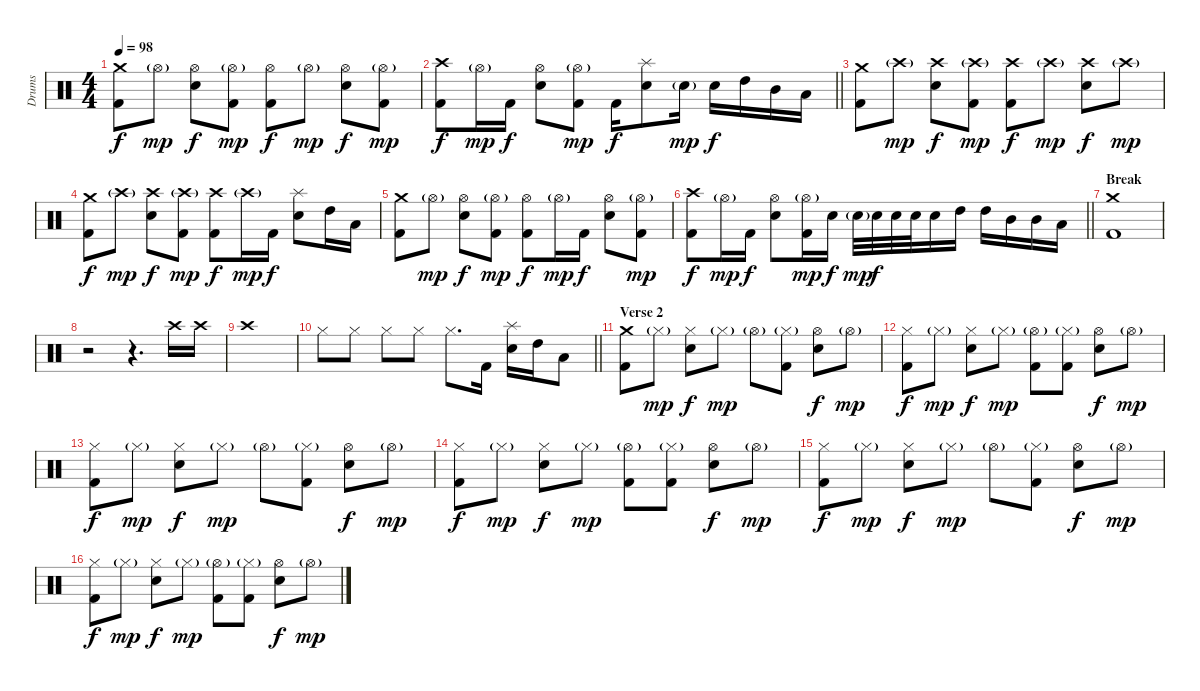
\track ("Drums " "Drums ") {instrument percussion bank 32}
\staff {score}
\articulation defaults
\ts (4 4)
\tempo 98
\clef neutral
\ks c
("Crash medium (hit)" "Kick (hit) 2").8{dy f} "Hi-Hat (open)"{g}.8{dy mp} ("Hi-Hat (open)" "Electric Snare (hit)").8{dy f} ("Hi-Hat (open)"{g} "Kick (hit) 2").8{dy mp} ("Hi-Hat (open)" "Kick (hit) 2").8{dy f} "Hi-Hat (open)"{g}.8{dy mp} ("Hi-Hat (open)" "Electric Snare (hit)").8{dy f} ("Hi-Hat (open)"{g} "Kick (hit) 2").8{dy mp} |
\barLineRight lightlight
("Crash high (hit)" "Kick (hit) 2").8{dy f} "Hi-Hat (open)"{g}.16{dy mp} "Kick (hit) 2".16{dy f} ("Hi-Hat (open)" "Electric Snare (hit)").8 ("Hi-Hat (open)"{g} "Kick (hit) 2").8{dy mp} "Kick (hit) 2".16{dy f} ("Splash (hit)" "Electric Snare (hit)").8 "Electric Snare (hit)"{g}.16{dy mp} "Electric Snare (hit)".16{dy f} "High Tom (hit)".16 "Mid Tom (hit)".16 "Low Tom (hit)".16 |
("Crash medium (hit)" "Kick (hit) 2").8 "Crash high (hit)"{g}.8{dy mp} ("Crash high (hit)" "Electric Snare (hit)").8{dy f} ("Crash high (hit)"{g} "Kick (hit) 2").8{dy mp} ("Crash high (hit)" "Kick (hit) 2").8{dy f} "Crash high (hit)"{g}.8{dy mp} ("Crash high (hit)" "Electric Snare (hit)").8{dy f} "Crash high (hit)"{g}.8{dy mp} |
("Crash medium (hit)" "Kick (hit) 2").8{dy f} "Crash high (hit)"{g}.8{dy mp} ("Crash high (hit)" "Electric Snare (hit)").8{dy f} ("Crash high (hit)"{g} "Kick (hit) 2").8{dy mp} ("Crash high (hit)" "Kick (hit) 2").8{dy f} "Crash high (hit)"{g}.16{dy mp} "Kick (hit) 2".16{dy f} ("Splash (hit)" "Electric Snare (hit)").8 "High Tom (hit)".16 "Low Tom (hit)".16 |
("Crash medium (hit)" "Kick (hit) 2").8 "Hi-Hat (open)"{g}.8{dy mp} ("Hi-Hat (open)" "Electric Snare (hit)").8{dy f} ("Hi-Hat (open)"{g} "Kick (hit) 2").8{dy mp} ("Hi-Hat (open)" "Kick (hit) 2").8{dy f} "Hi-Hat (open)"{g}.16{dy mp} "Kick (hit) 2".16{dy f} ("Hi-Hat (open)" "Electric Snare (hit)").8 ("Hi-Hat (open)"{g} "Kick (hit) 2").8{dy mp} |
\barLineRight lightlight
("Crash high (hit)" "Kick (hit) 2").8{dy f} "Hi-Hat (open)"{g}.16{dy mp} "Kick (hit) 2".16{dy f} ("Hi-Hat (open)" "Electric Snare (hit)").8 ("Hi-Hat (open)"{g} "Kick (hit) 2").16{dy mp} "Electric Snare (hit)".16{dy f} "Electric Snare (hit)"{g}.32{dy mp} "Electric Snare (hit)".32{dy f} "Electric Snare (hit)".32 "Electric Snare (hit)".32 "Electric Snare (hit)".16 "High Tom (hit)".16 "High Tom (hit)".16 "Mid Tom (hit)".16 "Mid Tom (hit)".16 "Low Tom (hit)".16 |
\section ("" "Break")
("Crash medium (hit)" "Kick (hit) 2").1 |
r.2{volume 0} r.4{d volume 13} "Crash high (hit)".16 "Crash high (hit)".16 |
"Crash high (hit)".1 |
\barLineRight lightlight "Hi-Hat (closed)".8 "Hi-Hat (closed)".8 "Hi-Hat (closed)".8 "Hi-Hat (closed)".8 "Hi-Hat (closed)".8{d} "Kick (hit) 2".16
("Splash (hit)" "Electric Snare (hit)").16 "High Tom (hit)".16 "Low Tom (hit)".8 |
\section ("" "Verse 2")
("Crash medium (hit)" "Kick (hit) 2").8 "Hi-Hat (closed)"{g}.8{dy mp} ("Hi-Hat (closed)" "Electric Snare (hit)").8{dy f} "Hi-Hat (closed)"{g}.8{dy mp} "Hi-Hat (open)"{g}.8 ("Hi-Hat (closed)"{g} "Kick (hit) 2").8 ("Hi-Hat (open)" "Electric Snare (hit)").8{dy f} "Hi-Hat (open)"{g}.8{dy mp} |
("Hi-Hat (closed)" "Kick (hit) 2").8{dy f} "Hi-Hat (closed)"{g}.8{dy mp} ("Hi-Hat (closed)" "Electric Snare (hit)").8{dy f} "Hi-Hat (closed)"{g}.8{dy mp} ("Hi-Hat (open)"{g} "Kick (hit) 2").8 ("Hi-Hat (closed)"{g} "Kick (hit) 2").8 ("Hi-Hat (open)" "Electric Snare (hit)").8{dy f} "Hi-Hat (open)"{g}.8{dy mp} |
("Hi-Hat (closed)" "Kick (hit) 2").8{dy f} "Hi-Hat (closed)"{g}.8{dy mp} ("Hi-Hat (closed)" "Electric Snare (hit)").8{dy f} "Hi-Hat (closed)"{g}.8{dy mp} "Hi-Hat (open)"{g}.8 ("Hi-Hat (closed)"{g} "Kick (hit) 2").8 ("Hi-Hat (open)" "Electric Snare (hit)").8{dy f} "Hi-Hat (open)"{g}.8{dy mp} |
("Hi-Hat (closed)" "Kick (hit) 2").8{dy f} "Hi-Hat (closed)"{g}.8{dy mp} ("Hi-Hat (closed)" "Electric Snare (hit)").8{dy f} "Hi-Hat (closed)"{g}.8{dy mp} ("Hi-Hat (open)"{g} "Kick (hit) 2").8 ("Hi-Hat (closed)"{g} "Kick (hit) 2").8 ("Hi-Hat (open)" "Electric Snare (hit)").8{dy f} "Hi-Hat (open)"{g}.8{dy mp} |
("Hi-Hat (closed)" "Kick (hit) 2").8{dy f} "Hi-Hat (closed)"{g}.8{dy mp} ("Hi-Hat (closed)" "Electric Snare (hit)").8{dy f} "Hi-Hat (closed)"{g}.8{dy mp} "Hi-Hat (open)"{g}.8 ("Hi-Hat (closed)"{g} "Kick (hit) 2").8 ("Hi-Hat (open)" "Electric Snare (hit)").8{dy f} "Hi-Hat (open)"{g}.8{dy mp} |
("Hi-Hat (closed)" "Kick (hit) 2").8{dy f} "Hi-Hat (closed)"{g}.8{dy mp} ("Hi-Hat (closed)" "Electric Snare (hit)").8{dy f} "Hi-Hat (closed)"{g}.8{dy mp} ("Hi-Hat (open)"{g} "Kick (hit) 2").8 ("Hi-Hat (closed)"{g} "Kick (hit) 2").8 ("Hi-Hat (open)" "Electric Snare (hit)").8{dy f} "Hi-Hat (open)"{g}.8{dy mp}
